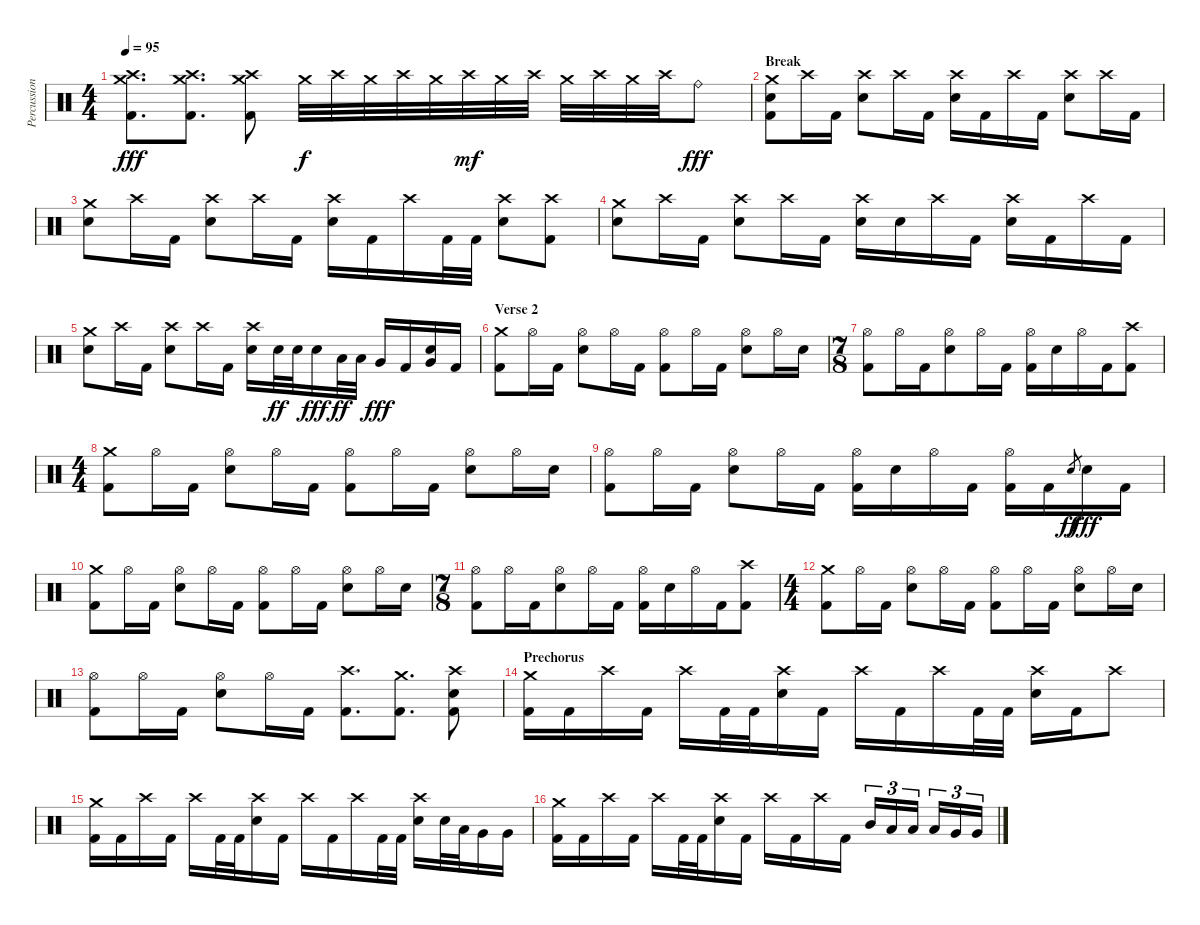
\track ("Percussion" "Percussion") {instrument percussion}
\staff {score}
\articulation defaults
\ts (4 4)
\tempo 95
\clef neutral
\ks c
("Crash medium (hit)" "Crash high (hit)" "Kick (hit) 2").8{d dy fff} ("Crash medium (hit)" "Crash high (hit)" "Kick (hit) 2").8{d} ("Crash medium (hit)" "Crash high (hit)" "Kick (hit) 2").8 "Crash medium (hit)".32{dy f} "Crash high (hit)".32 "Crash medium (hit)".32 "Crash high (hit)".32 "Crash medium (hit)".32 "Crash high (hit)".32{dy mf} "Crash medium (hit)".32 "Crash high (hit)".32 "Crash medium (hit)".32 "Crash high (hit)".32 "Crash medium (hit)".32 "Crash high (hit)".32 "Ride (bell)".8{dy fff} |
\section ("" "Break")
("Crash medium (hit)" "Snare (hit) 2" "Kick (hit) 2").8 "Crash high (hit)".16 "Kick (hit) 2".16 ("Crash high (hit)" "Snare (hit) 2").8 "Crash high (hit)".16 "Kick (hit) 2".16 ("Crash high (hit)" "Snare (hit) 2").16 "Kick (hit) 2".16 "Crash high (hit)".16 "Kick (hit) 2".16 ("Crash high (hit)" "Snare (hit) 2").8 "Crash high (hit)".16 "Kick (hit) 2".16 |
("Crash medium (hit)" "Snare (hit) 2").8 "Crash high (hit)".16 "Kick (hit) 2".16 ("Crash high (hit)" "Snare (hit) 2").8 "Crash high (hit)".16 "Kick (hit) 2".16 ("Crash high (hit)" "Snare (hit) 2").16 "Kick (hit) 2".16 "Crash high (hit)".16 "Kick (hit) 2".32 "Kick (hit) 2".32 ("Crash high (hit)" "Snare (hit) 2").8 ("Crash high (hit)" "Kick (hit) 2").8 |
("Crash medium (hit)" "Snare (hit) 2").8 "Crash high (hit)".16 "Kick (hit) 2".16 ("Crash high (hit)" "Snare (hit) 2").8 "Crash high (hit)".16 "Kick (hit) 2".16 ("Crash high (hit)" "Snare (hit) 2").16 "Snare (hit) 2".16 "Crash high (hit)".16 "Kick (hit) 2".16 ("Crash high (hit)" "Snare (hit) 2").16 "Kick (hit) 2".16 "Crash high (hit)".16 "Kick (hit) 2".16 |
("Crash medium (hit)" "Snare (hit) 2").8 "Crash high (hit)".16 "Kick (hit) 2".16 ("Crash high (hit)" "Snare (hit) 2").8 "Crash high (hit)".16 "Kick (hit) 2".16 ("Crash high (hit)" "Snare (hit) 2").16 "Snare (hit) 2".32{dy ff} "Snare (hit) 2".32 "Snare (hit) 2".16{dy fff} "Low Tom (hit)".32{dy ff} "Low Tom (hit)".32 "Very Low Tom (hit)".16{dy fff} "Kick (hit) 2".16 ("Very Low Tom (hit)" "Snare (hit) 2").16 "Kick (hit) 2".16 |
\section ("" "Verse 2")
("Crash medium (hit)" "Kick (hit) 2").8 "Hi-Hat (open)".16 "Kick (hit) 2".16 ("Hi-Hat (open)" "Snare (hit) 2").8 "Hi-Hat (open)".16 "Kick (hit) 2".16 ("Hi-Hat (open)" "Kick (hit) 2").8 "Hi-Hat (open)".16 "Kick (hit) 2".16 ("Hi-Hat (open)" "Snare (hit) 2").8 "Hi-Hat (open)".16 "Snare (hit) 2".16 |
\ts (7 8)
("Hi-Hat (open)" "Kick (hit) 2").8 "Hi-Hat (open)".16 "Kick (hit) 2".16 ("Hi-Hat (open)" "Snare (hit) 2").8 "Hi-Hat (open)".16 "Kick (hit) 2".16 ("Hi-Hat (open)" "Kick (hit) 2").16 "Snare (hit) 2".16 "Hi-Hat (open)".16 "Kick (hit) 2".16 ("Crash high (hit)" "Kick (hit) 2").8 |
\ts (4 4)
("Crash medium (hit)" "Kick (hit) 2").8 "Hi-Hat (open)".16 "Kick (hit) 2".16 ("Hi-Hat (open)" "Snare (hit) 2").8 "Hi-Hat (open)".16 "Kick (hit) 2".16 ("Hi-Hat (open)" "Kick (hit) 2").8 "Hi-Hat (open)".16 "Kick (hit) 2".16 ("Hi-Hat (open)" "Snare (hit) 2").8 "Hi-Hat (open)".16 "Snare (hit) 2".16 |
("Hi-Hat (open)" "Kick (hit) 2").8 "Hi-Hat (open)".16 "Kick (hit) 2".16 ("Hi-Hat (open)" "Snare (hit) 2").8 "Hi-Hat (open)".16 "Kick (hit) 2".16 ("Hi-Hat (open)" "Kick (hit) 2").16 "Snare (hit) 2".16 "Hi-Hat (open)".16 "Kick (hit) 2".16 ("Hi-Hat (open)" "Kick (hit) 2").16 "Kick (hit) 2".16 "Snare (hit) 2".8{gr dy ff} "Snare (hit) 2".16{dy fff} "Kick (hit) 2".16 |
("Crash medium (hit)" "Kick (hit) 2").8 "Hi-Hat (open)".16 "Kick (hit) 2".16 ("Hi-Hat (open)" "Snare (hit) 2").8 "Hi-Hat (open)".16 "Kick (hit) 2".16 ("Hi-Hat (open)" "Kick (hit) 2").8 "Hi-Hat (open)".16 "Kick (hit) 2".16 ("Hi-Hat (open)" "Snare (hit) 2").8 "Hi-Hat (open)".16 "Snare (hit) 2".16 |
\ts (7 8)
("Hi-Hat (open)" "Kick (hit) 2").8 "Hi-Hat (open)".16 "Kick (hit) 2".16 ("Hi-Hat (open)" "Snare (hit) 2").8 "Hi-Hat (open)".16 "Kick (hit) 2".16 ("Hi-Hat (open)" "Kick (hit) 2").16 "Snare (hit) 2".16 "Hi-Hat (open)".16 "Kick (hit) 2".16 ("Crash high (hit)" "Kick (hit) 2").8 |
\ts (4 4)
("Crash medium (hit)" "Kick (hit) 2").8 "Hi-Hat (open)".16 "Kick (hit) 2".16 ("Hi-Hat (open)" "Snare (hit) 2").8 "Hi-Hat (open)".16 "Kick (hit) 2".16 ("Hi-Hat (open)" "Kick (hit) 2").8 "Hi-Hat (open)".16 "Kick (hit) 2".16 ("Hi-Hat (open)" "Snare (hit) 2").8 "Hi-Hat (open)".16 "Snare (hit) 2".16 |
("Hi-Hat (open)" "Kick (hit) 2").8 "Hi-Hat (open)".16 "Kick (hit) 2".16 ("Hi-Hat (open)" "Snare (hit) 2").8 "Hi-Hat (open)".16 "Kick (hit) 2".16 ("Crash high (hit)" "Kick (hit) 2").8{d} ("Crash medium (hit)" "Kick (hit) 2").8{d} ("Crash high (hit)" "Snare (hit) 2" "Kick (hit) 2").8 |
\section ("" "Prechorus")
("Crash medium (hit)" "Kick (hit) 2").16 "Kick (hit) 2".16 "Crash high (hit)".16 "Kick (hit) 2".16 "Crash high (hit)".16 "Kick (hit) 2".32 "Kick (hit) 2".32 ("Crash high (hit)" "Snare (hit) 2").16 "Kick (hit) 2".16 "Crash high (hit)".16 "Kick (hit) 2".16 "Crash high (hit)".16 "Kick (hit) 2".32 "Kick (hit) 2".32 ("Crash high (hit)" "Snare (hit) 2").16 "Kick (hit) 2".16 "Crash high (hit)".8 |
("Crash medium (hit)" "Kick (hit) 2").16 "Kick (hit) 2".16 "Crash high (hit)".16 "Kick (hit) 2".16 "Crash high (hit)".16 "Kick (hit) 2".32 "Kick (hit) 2".32 ("Crash high (hit)" "Snare (hit) 2").16 "Kick (hit) 2".16 "Crash high (hit)".16 "Kick (hit) 2".16 "Crash high (hit)".16 "Kick (hit) 2".32 "Kick (hit) 2".32 ("Crash high (hit)" "Snare (hit) 2").16 "Snare (hit) 2".32 "Low Tom (hit)".32 "Very Low Tom (hit)".16 "Very Low Tom (hit)".16 |
("Crash medium (hit)" "Kick (hit) 2").16 "Kick (hit) 2".16 "Crash high (hit)".16 "Kick (hit) 2".16 "Crash high (hit)".16 "Kick (hit) 2".32 "Kick (hit) 2".32 ("Crash high (hit)" "Snare (hit) 2").16 "Kick (hit) 2".16 "Crash high (hit)".16 "Kick (hit) 2".16 "Crash high (hit)".16 "Kick (hit) 2".16 "Mid Tom (hit)".16{tu (3 2)} "Low Tom (hit)".16{tu (3 2)} "Low Tom (hit)".16{tu (3 2) beam splitsecondary} "Low Tom (hit)".16{tu (3 2)} "Very Low Tom (hit)".16{tu (3 2)} "Very Low Tom (hit)".16{tu (3 2)}
